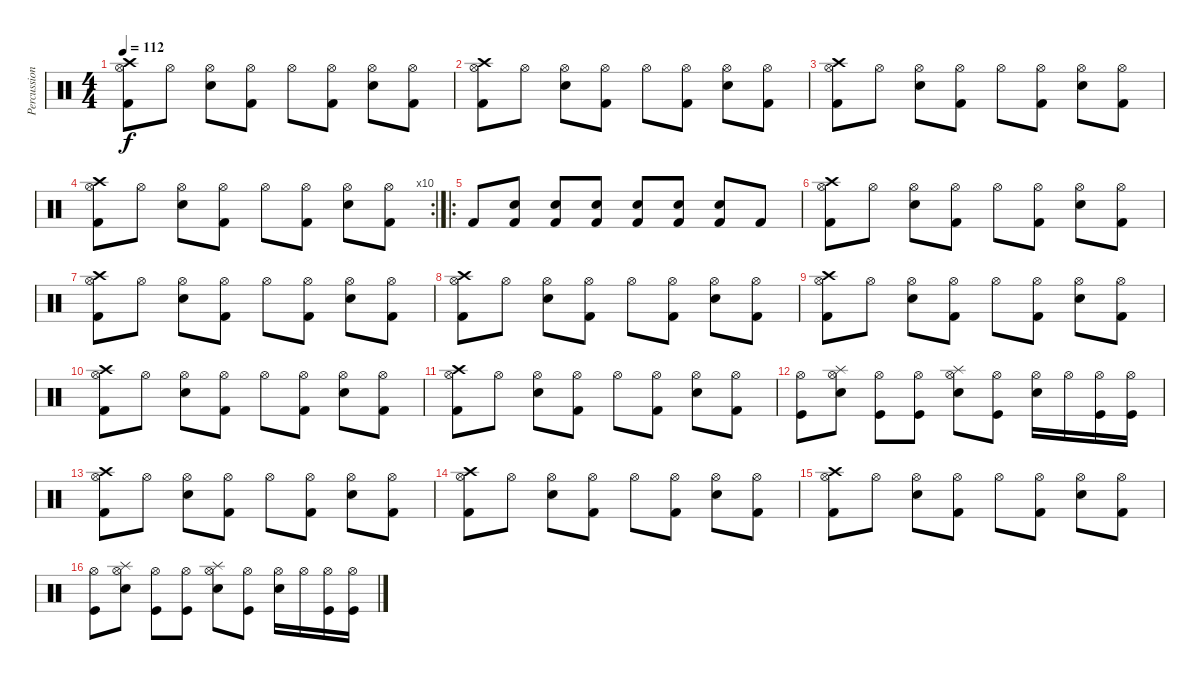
\track ("Percussion" "Percussion") {instrument percussion}
\staff {score}
\articulation defaults
\ts (4 4)
\tempo 112
\clef neutral
\ks c
("Kick (hit) 2" "Hi-Hat (open)" "Crash high (hit)").8{dy f} "Hi-Hat (open)".8 ("Electric Snare (hit)" "Hi-Hat (open)").8 ("Kick (hit) 2" "Hi-Hat (open)").8 "Hi-Hat (open)".8 ("Kick (hit) 2" "Hi-Hat (open)").8 ("Electric Snare (hit)" "Hi-Hat (open)").8 ("Kick (hit) 2" "Hi-Hat (open)").8 |
("Kick (hit) 2" "Hi-Hat (open)" "Crash high (hit)").8 "Hi-Hat (open)".8 ("Electric Snare (hit)" "Hi-Hat (open)").8 ("Kick (hit) 2" "Hi-Hat (open)").8 "Hi-Hat (open)".8 ("Kick (hit) 2" "Hi-Hat (open)").8 ("Electric Snare (hit)" "Hi-Hat (open)").8 ("Kick (hit) 2" "Hi-Hat (open)").8 |
("Kick (hit) 2" "Hi-Hat (open)" "Crash high (hit)").8 "Hi-Hat (open)".8 ("Electric Snare (hit)" "Hi-Hat (open)").8 ("Kick (hit) 2" "Hi-Hat (open)").8 "Hi-Hat (open)".8 ("Kick (hit) 2" "Hi-Hat (open)").8 ("Electric Snare (hit)" "Hi-Hat (open)").8 ("Kick (hit) 2" "Hi-Hat (open)").8 |
\rc 10
("Kick (hit) 2" "Hi-Hat (open)" "Crash high (hit)").8 "Hi-Hat (open)".8 ("Electric Snare (hit)" "Hi-Hat (open)").8 ("Kick (hit) 2" "Hi-Hat (open)").8 "Hi-Hat (open)".8 ("Kick (hit) 2" "Hi-Hat (open)").8 ("Electric Snare (hit)" "Hi-Hat (open)").8 ("Kick (hit) 2" "Hi-Hat (open)").8 |
\ro "Kick (hit) 2".8
("Electric Snare (hit)" "Kick (hit) 2").8 ("Electric Snare (hit)" "Kick (hit) 2").8 ("Kick (hit) 2" "Electric Snare (hit)").8 ("Electric Snare (hit)" "Kick (hit) 2").8 ("Electric Snare (hit)" "Kick (hit) 2").8 ("Kick (hit) 2" "Electric Snare (hit)").8 "Kick (hit) 2".8 |
("Kick (hit) 2" "Hi-Hat (open)" "Crash high (hit)").8 "Hi-Hat (open)".8 ("Electric Snare (hit)" "Hi-Hat (open)").8 ("Kick (hit) 2" "Hi-Hat (open)").8 "Hi-Hat (open)".8 ("Kick (hit) 2" "Hi-Hat (open)").8 ("Electric Snare (hit)" "Hi-Hat (open)").8 ("Kick (hit) 2" "Hi-Hat (open)").8 |
("Kick (hit) 2" "Hi-Hat (open)" "Crash high (hit)").8 "Hi-Hat (open)".8 ("Electric Snare (hit)" "Hi-Hat (open)").8 ("Kick (hit) 2" "Hi-Hat (open)").8 "Hi-Hat (open)".8 ("Kick (hit) 2" "Hi-Hat (open)").8 ("Electric Snare (hit)" "Hi-Hat (open)").8 ("Kick (hit) 2" "Hi-Hat (open)").8 |
("Kick (hit) 2" "Hi-Hat (open)" "Crash high (hit)").8 "Hi-Hat (open)".8 ("Electric Snare (hit)" "Hi-Hat (open)").8 ("Kick (hit) 2" "Hi-Hat (open)").8 "Hi-Hat (open)".8 ("Kick (hit) 2" "Hi-Hat (open)").8 ("Electric Snare (hit)" "Hi-Hat (open)").8 ("Kick (hit) 2" "Hi-Hat (open)").8 |
("Kick (hit) 2" "Hi-Hat (open)" "Crash high (hit)").8 "Hi-Hat (open)".8 ("Electric Snare (hit)" "Hi-Hat (open)").8 ("Kick (hit) 2" "Hi-Hat (open)").8 "Hi-Hat (open)".8 ("Kick (hit) 2" "Hi-Hat (open)").8 ("Electric Snare (hit)" "Hi-Hat (open)").8 ("Kick (hit) 2" "Hi-Hat (open)").8 |
("Kick (hit) 2" "Hi-Hat (open)" "Crash high (hit)").8 "Hi-Hat (open)".8 ("Electric Snare (hit)" "Hi-Hat (open)").8 ("Kick (hit) 2" "Hi-Hat (open)").8 "Hi-Hat (open)".8 ("Kick (hit) 2" "Hi-Hat (open)").8 ("Electric Snare (hit)" "Hi-Hat (open)").8 ("Kick (hit) 2" "Hi-Hat (open)").8 |
("Kick (hit) 2" "Hi-Hat (open)" "Crash high (hit)").8 "Hi-Hat (open)".8 ("Electric Snare (hit)" "Hi-Hat (open)").8 ("Kick (hit) 2" "Hi-Hat (open)").8 "Hi-Hat (open)".8 ("Kick (hit) 2" "Hi-Hat (open)").8 ("Electric Snare (hit)" "Hi-Hat (open)").8 ("Kick (hit) 2" "Hi-Hat (open)").8 |
("Kick (hit)" "Hi-Hat (open)").8 ("Splash (hit)" "Snare (hit) 2" "Hi-Hat (open)").8 ("Kick (hit)" "Hi-Hat (open)").8 ("Kick (hit)" "Hi-Hat (open)").8 ("Splash (hit)" "Snare (hit) 2" "Hi-Hat (open)").8 ("Kick (hit)" "Hi-Hat (open)").8 ("Snare (hit) 2" "Hi-Hat (open)").16 "Hi-Hat (open)".16 ("Kick (hit)" "Hi-Hat (open)").16 ("Kick (hit)" "Hi-Hat (open)").16 |
("Kick (hit) 2" "Hi-Hat (open)" "Crash high (hit)").8 "Hi-Hat (open)".8 ("Electric Snare (hit)" "Hi-Hat (open)").8 ("Kick (hit) 2" "Hi-Hat (open)").8 "Hi-Hat (open)".8 ("Kick (hit) 2" "Hi-Hat (open)").8 ("Electric Snare (hit)" "Hi-Hat (open)").8 ("Kick (hit) 2" "Hi-Hat (open)").8 |
("Kick (hit) 2" "Hi-Hat (open)" "Crash high (hit)").8 "Hi-Hat (open)".8 ("Electric Snare (hit)" "Hi-Hat (open)").8 ("Kick (hit) 2" "Hi-Hat (open)").8 "Hi-Hat (open)".8 ("Kick (hit) 2" "Hi-Hat (open)").8 ("Electric Snare (hit)" "Hi-Hat (open)").8 ("Kick (hit) 2" "Hi-Hat (open)").8 |
("Kick (hit) 2" "Hi-Hat (open)" "Crash high (hit)").8 "Hi-Hat (open)".8 ("Electric Snare (hit)" "Hi-Hat (open)").8 ("Kick (hit) 2" "Hi-Hat (open)").8 "Hi-Hat (open)".8 ("Kick (hit) 2" "Hi-Hat (open)").8 ("Electric Snare (hit)" "Hi-Hat (open)").8 ("Kick (hit) 2" "Hi-Hat (open)").8 |
("Kick (hit)" "Hi-Hat (open)").8 ("Splash (hit)" "Snare (hit) 2" "Hi-Hat (open)").8 ("Kick (hit)" "Hi-Hat (open)").8 ("Kick (hit)" "Hi-Hat (open)").8 ("Splash (hit)" "Snare (hit) 2" "Hi-Hat (open)").8 ("Kick (hit)" "Hi-Hat (open)").8 ("Snare (hit) 2" "Hi-Hat (open)").16 "Hi-Hat (open)".16 ("Kick (hit)" "Hi-Hat (open)").16 ("Kick (hit)" "Hi-Hat (open)").16
